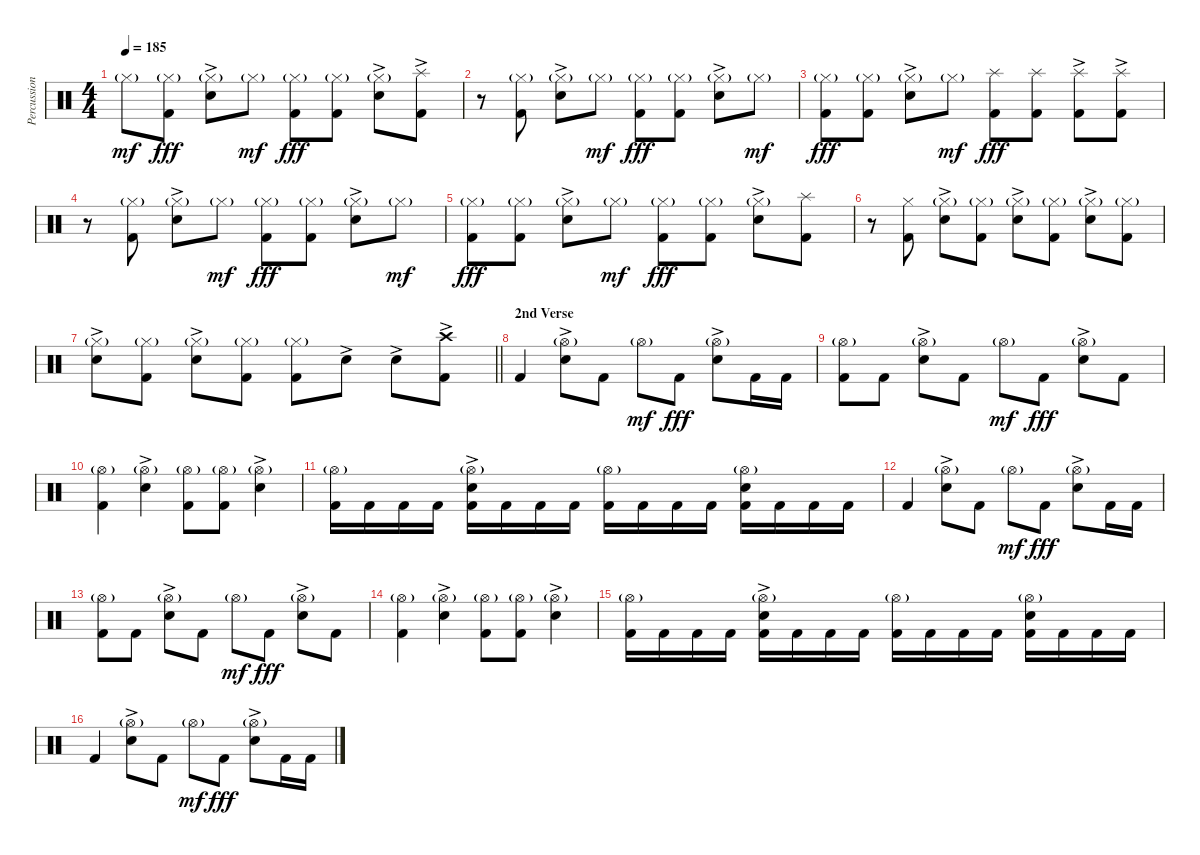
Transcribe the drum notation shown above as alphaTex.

\track ("Percussion , Drums - Travis Smith" "Percussion") {instrument percussion}
\staff {score}
\articulation defaults
\ts (4 4)
\tempo 185
\clef neutral
\ks c "Hi-Hat (closed)"{g}.8{dy mf}
("Hi-Hat (closed)"{g} "Kick (hit) 2").8{dy fff} ("Hi-Hat (closed)"{g} "Electric Snare (hit)"{ac}).8 "Hi-Hat (closed)"{g}.8{dy mf} ("Hi-Hat (closed)"{g} "Kick (hit) 2").8{dy fff} ("Hi-Hat (closed)"{g} "Kick (hit) 2").8 ("Hi-Hat (closed)"{g} "Electric Snare (hit)"{ac}).8 ("Splash (hit)"{ac} "Kick (hit) 2").8 |
r.8 ("Hi-Hat (closed)"{g} "Kick (hit) 2").8 ("Hi-Hat (closed)"{g} "Electric Snare (hit)"{ac}).8 "Hi-Hat (closed)"{g}.8{dy mf} ("Hi-Hat (closed)"{g} "Kick (hit) 2").8{dy fff} ("Hi-Hat (closed)"{g} "Kick (hit) 2").8 ("Hi-Hat (closed)"{g} "Electric Snare (hit)"{ac}).8 "Hi-Hat (closed)"{g}.8{dy mf} |
("Hi-Hat (closed)"{g} "Kick (hit) 2").8{dy fff} ("Hi-Hat (closed)"{g} "Kick (hit) 2").8 ("Hi-Hat (closed)"{g} "Electric Snare (hit)"{ac}).8 "Hi-Hat (closed)"{g}.8{dy mf} ("Splash (hit)" "Kick (hit) 2").8{dy fff} ("Splash (hit)" "Kick (hit) 2").8 ("Splash (hit)"{ac} "Kick (hit) 2").8 ("Splash (hit)"{ac} "Kick (hit) 2").8 |
r.8 ("Hi-Hat (closed)"{g} "Kick (hit) 2").8 ("Hi-Hat (closed)"{g} "Electric Snare (hit)"{ac}).8 "Hi-Hat (closed)"{g}.8{dy mf} ("Hi-Hat (closed)"{g} "Kick (hit) 2").8{dy fff} ("Hi-Hat (closed)"{g} "Kick (hit) 2").8 ("Hi-Hat (closed)"{g} "Electric Snare (hit)"{ac}).8 "Hi-Hat (closed)"{g}.8{dy mf} |
("Hi-Hat (closed)"{g} "Kick (hit) 2").8{dy fff} ("Hi-Hat (closed)"{g} "Kick (hit) 2").8 ("Hi-Hat (closed)"{g} "Electric Snare (hit)"{ac}).8 "Hi-Hat (closed)"{g}.8{dy mf} ("Hi-Hat (closed)"{g} "Kick (hit) 2").8{dy fff} ("Hi-Hat (closed)"{g} "Kick (hit) 2").8 ("Hi-Hat (closed)"{g} "Electric Snare (hit)"{ac}).8 ("Splash (hit)" "Kick (hit) 2").8 |
r.8 ("Hi-Hat (closed)" "Kick (hit) 2").8 ("Hi-Hat (closed)"{g} "Electric Snare (hit)"{ac}).8 ("Hi-Hat (closed)"{g} "Kick (hit) 2").8 ("Hi-Hat (closed)"{g} "Electric Snare (hit)"{ac}).8 ("Hi-Hat (closed)"{g} "Kick (hit) 2").8 ("Hi-Hat (closed)"{g} "Electric Snare (hit)"{ac}).8 ("Hi-Hat (closed)"{g} "Kick (hit) 2").8 |
\barLineRight lightlight
("Hi-Hat (closed)"{g} "Electric Snare (hit)"{ac}).8 ("Hi-Hat (closed)"{g} "Kick (hit) 2").8 ("Hi-Hat (closed)"{g} "Electric Snare (hit)"{ac}).8 ("Hi-Hat (closed)"{g} "Kick (hit) 2").8 ("Hi-Hat (closed)"{g} "Kick (hit) 2").8 "Electric Snare (hit)"{ac}.8 "Electric Snare (hit)"{ac}.8 ("Crash high (hit)"{ac} "Kick (hit) 2").8 |
\section ("" "2nd Verse")
"Kick (hit) 2".4 ("Hi-Hat (open)"{g} "Electric Snare (hit)"{ac}).8 "Kick (hit) 2".8 "Hi-Hat (open)"{g}.8{dy mf} "Kick (hit) 2".8{dy fff} ("Hi-Hat (open)"{g} "Electric Snare (hit)"{ac}).8 "Kick (hit) 2".16 "Kick (hit) 2".16 |
("Hi-Hat (open)"{g} "Kick (hit) 2").8 "Kick (hit) 2".8 ("Hi-Hat (open)"{g} "Electric Snare (hit)"{ac}).8 "Kick (hit) 2".8 "Hi-Hat (open)"{g}.8{dy mf} "Kick (hit) 2".8{dy fff} ("Hi-Hat (open)"{g} "Electric Snare (hit)"{ac}).8 "Kick (hit) 2".8 |
("Hi-Hat (open)"{g} "Kick (hit) 2").4 ("Hi-Hat (open)"{g} "Electric Snare (hit)"{ac}).4 ("Hi-Hat (open)"{g} "Kick (hit) 2").8 ("Hi-Hat (open)"{g} "Kick (hit) 2").8 ("Hi-Hat (open)"{g} "Electric Snare (hit)"{ac}).4 |
("Hi-Hat (open)"{g} "Kick (hit) 2").16 "Kick (hit) 2".16 "Kick (hit) 2".16 "Kick (hit) 2".16 ("Hi-Hat (open)"{g} "Electric Snare (hit)"{ac} "Kick (hit) 2").16 "Kick (hit) 2".16 "Kick (hit) 2".16 "Kick (hit) 2".16 ("Hi-Hat (open)"{g} "Kick (hit) 2").16 "Kick (hit) 2".16 "Kick (hit) 2".16 "Kick (hit) 2".16 ("Hi-Hat (open)"{g} "Electric Snare (hit)" "Kick (hit) 2").16 "Kick (hit) 2".16 "Kick (hit) 2".16 "Kick (hit) 2".16 |
"Kick (hit) 2".4 ("Hi-Hat (open)"{g} "Electric Snare (hit)"{ac}).8 "Kick (hit) 2".8 "Hi-Hat (open)"{g}.8{dy mf} "Kick (hit) 2".8{dy fff} ("Hi-Hat (open)"{g} "Electric Snare (hit)"{ac}).8 "Kick (hit) 2".16 "Kick (hit) 2".16 |
("Hi-Hat (open)"{g} "Kick (hit) 2").8 "Kick (hit) 2".8 ("Hi-Hat (open)"{g} "Electric Snare (hit)"{ac}).8 "Kick (hit) 2".8 "Hi-Hat (open)"{g}.8{dy mf} "Kick (hit) 2".8{dy fff} ("Hi-Hat (open)"{g} "Electric Snare (hit)"{ac}).8 "Kick (hit) 2".8 |
("Hi-Hat (open)"{g} "Kick (hit) 2").4 ("Hi-Hat (open)"{g} "Electric Snare (hit)"{ac}).4 ("Hi-Hat (open)"{g} "Kick (hit) 2").8 ("Hi-Hat (open)"{g} "Kick (hit) 2").8 ("Hi-Hat (open)"{g} "Electric Snare (hit)"{ac}).4 |
("Hi-Hat (open)"{g} "Kick (hit) 2").16 "Kick (hit) 2".16 "Kick (hit) 2".16 "Kick (hit) 2".16 ("Hi-Hat (open)"{g} "Electric Snare (hit)"{ac} "Kick (hit) 2").16 "Kick (hit) 2".16 "Kick (hit) 2".16 "Kick (hit) 2".16 ("Hi-Hat (open)"{g} "Kick (hit) 2").16 "Kick (hit) 2".16 "Kick (hit) 2".16 "Kick (hit) 2".16 ("Hi-Hat (open)"{g} "Electric Snare (hit)" "Kick (hit) 2").16 "Kick (hit) 2".16 "Kick (hit) 2".16 "Kick (hit) 2".16 |
"Kick (hit) 2".4 ("Hi-Hat (open)"{g} "Electric Snare (hit)"{ac}).8 "Kick (hit) 2".8 "Hi-Hat (open)"{g}.8{dy mf} "Kick (hit) 2".8{dy fff} ("Hi-Hat (open)"{g} "Electric Snare (hit)"{ac}).8 "Kick (hit) 2".16 "Kick (hit) 2".16
